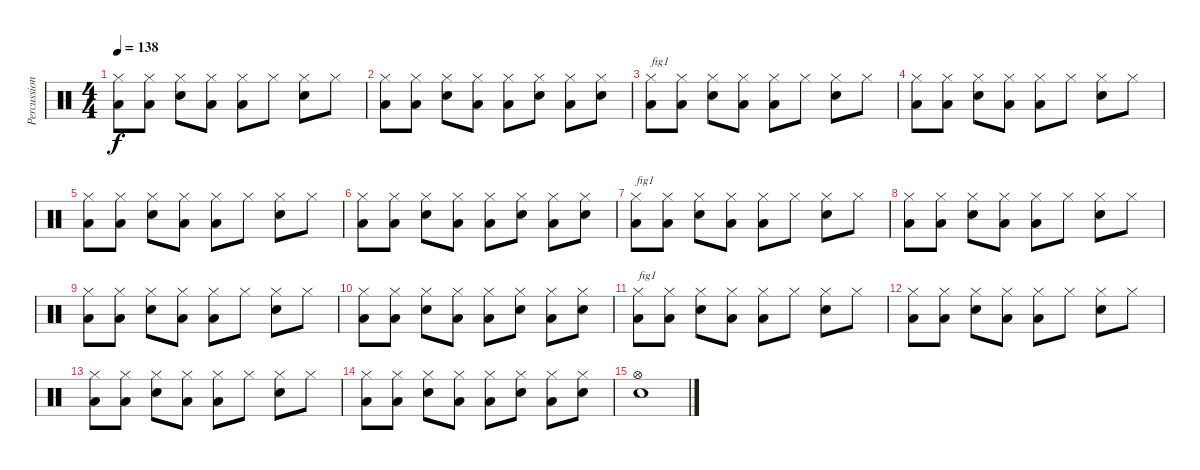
\track ("Percussions" "Percussion") {instrument percussion}
\staff {score}
\articulation defaults
\ts (4 4)
\tempo 138
\clef neutral
\ks c
("Low Floor Tom (hit)" "Hi-Hat (closed)").8{dy f} ("Low Floor Tom (hit)" "Hi-Hat (closed)").8 ("Snare (hit) 2" "Hi-Hat (closed)").8 ("Low Floor Tom (hit)" "Hi-Hat (closed)").8 ("Low Floor Tom (hit)" "Hi-Hat (closed)").8 "Hi-Hat (closed)".8 ("Snare (hit) 2" "Hi-Hat (closed)").8 "Hi-Hat (closed)".8 |
("Low Floor Tom (hit)" "Hi-Hat (closed)").8 ("Low Floor Tom (hit)" "Hi-Hat (closed)").8 ("Snare (hit) 2" "Hi-Hat (closed)").8 ("Low Floor Tom (hit)" "Hi-Hat (closed)").8 ("Low Floor Tom (hit)" "Hi-Hat (closed)").8 ("Snare (hit) 2" "Hi-Hat (closed)").8 ("Low Floor Tom (hit)" "Hi-Hat (closed)").8 ("Snare (hit) 2" "Hi-Hat (closed)").8 |
("Low Floor Tom (hit)" "Hi-Hat (closed)").8{txt "fig1"} ("Low Floor Tom (hit)" "Hi-Hat (closed)").8 ("Snare (hit) 2" "Hi-Hat (closed)").8 ("Low Floor Tom (hit)" "Hi-Hat (closed)").8 ("Low Floor Tom (hit)" "Hi-Hat (closed)").8 "Hi-Hat (closed)".8 ("Snare (hit) 2" "Hi-Hat (closed)").8 "Hi-Hat (closed)".8 |
("Low Floor Tom (hit)" "Hi-Hat (closed)").8 ("Low Floor Tom (hit)" "Hi-Hat (closed)").8 ("Snare (hit) 2" "Hi-Hat (closed)").8 ("Low Floor Tom (hit)" "Hi-Hat (closed)").8 ("Low Floor Tom (hit)" "Hi-Hat (closed)").8 "Hi-Hat (closed)".8 ("Snare (hit) 2" "Hi-Hat (closed)").8 "Hi-Hat (closed)".8 |
("Low Floor Tom (hit)" "Hi-Hat (closed)").8 ("Low Floor Tom (hit)" "Hi-Hat (closed)").8 ("Snare (hit) 2" "Hi-Hat (closed)").8 ("Low Floor Tom (hit)" "Hi-Hat (closed)").8 ("Low Floor Tom (hit)" "Hi-Hat (closed)").8 "Hi-Hat (closed)".8 ("Snare (hit) 2" "Hi-Hat (closed)").8 "Hi-Hat (closed)".8 |
("Low Floor Tom (hit)" "Hi-Hat (closed)").8 ("Low Floor Tom (hit)" "Hi-Hat (closed)").8 ("Snare (hit) 2" "Hi-Hat (closed)").8 ("Low Floor Tom (hit)" "Hi-Hat (closed)").8 ("Low Floor Tom (hit)" "Hi-Hat (closed)").8 ("Snare (hit) 2" "Hi-Hat (closed)").8 ("Low Floor Tom (hit)" "Hi-Hat (closed)").8 ("Snare (hit) 2" "Hi-Hat (closed)").8 |
("Low Floor Tom (hit)" "Hi-Hat (closed)").8{txt "fig1"} ("Low Floor Tom (hit)" "Hi-Hat (closed)").8 ("Snare (hit) 2" "Hi-Hat (closed)").8 ("Low Floor Tom (hit)" "Hi-Hat (closed)").8 ("Low Floor Tom (hit)" "Hi-Hat (closed)").8 "Hi-Hat (closed)".8 ("Snare (hit) 2" "Hi-Hat (closed)").8 "Hi-Hat (closed)".8 |
("Low Floor Tom (hit)" "Hi-Hat (closed)").8 ("Low Floor Tom (hit)" "Hi-Hat (closed)").8 ("Snare (hit) 2" "Hi-Hat (closed)").8 ("Low Floor Tom (hit)" "Hi-Hat (closed)").8 ("Low Floor Tom (hit)" "Hi-Hat (closed)").8 "Hi-Hat (closed)".8 ("Snare (hit) 2" "Hi-Hat (closed)").8 "Hi-Hat (closed)".8 |
("Low Floor Tom (hit)" "Hi-Hat (closed)").8 ("Low Floor Tom (hit)" "Hi-Hat (closed)").8 ("Snare (hit) 2" "Hi-Hat (closed)").8 ("Low Floor Tom (hit)" "Hi-Hat (closed)").8 ("Low Floor Tom (hit)" "Hi-Hat (closed)").8 "Hi-Hat (closed)".8 ("Snare (hit) 2" "Hi-Hat (closed)").8 "Hi-Hat (closed)".8 |
("Low Floor Tom (hit)" "Hi-Hat (closed)").8 ("Low Floor Tom (hit)" "Hi-Hat (closed)").8 ("Snare (hit) 2" "Hi-Hat (closed)").8 ("Low Floor Tom (hit)" "Hi-Hat (closed)").8 ("Low Floor Tom (hit)" "Hi-Hat (closed)").8 ("Snare (hit) 2" "Hi-Hat (closed)").8 ("Low Floor Tom (hit)" "Hi-Hat (closed)").8 ("Snare (hit) 2" "Hi-Hat (closed)").8 |
("Low Floor Tom (hit)" "Hi-Hat (closed)").8{txt "fig1"} ("Low Floor Tom (hit)" "Hi-Hat (closed)").8 ("Snare (hit) 2" "Hi-Hat (closed)").8 ("Low Floor Tom (hit)" "Hi-Hat (closed)").8 ("Low Floor Tom (hit)" "Hi-Hat (closed)").8 "Hi-Hat (closed)".8 ("Snare (hit) 2" "Hi-Hat (closed)").8 "Hi-Hat (closed)".8 |
("Low Floor Tom (hit)" "Hi-Hat (closed)").8 ("Low Floor Tom (hit)" "Hi-Hat (closed)").8 ("Snare (hit) 2" "Hi-Hat (closed)").8 ("Low Floor Tom (hit)" "Hi-Hat (closed)").8 ("Low Floor Tom (hit)" "Hi-Hat (closed)").8 "Hi-Hat (closed)".8 ("Snare (hit) 2" "Hi-Hat (closed)").8 "Hi-Hat (closed)".8 |
("Low Floor Tom (hit)" "Hi-Hat (closed)").8 ("Low Floor Tom (hit)" "Hi-Hat (closed)").8 ("Snare (hit) 2" "Hi-Hat (closed)").8 ("Low Floor Tom (hit)" "Hi-Hat (closed)").8 ("Low Floor Tom (hit)" "Hi-Hat (closed)").8 "Hi-Hat (closed)".8 ("Snare (hit) 2" "Hi-Hat (closed)").8 "Hi-Hat (closed)".8 |
("Low Floor Tom (hit)" "Hi-Hat (closed)").8 ("Low Floor Tom (hit)" "Hi-Hat (closed)").8 ("Snare (hit) 2" "Hi-Hat (closed)").8 ("Low Floor Tom (hit)" "Hi-Hat (closed)").8 ("Low Floor Tom (hit)" "Hi-Hat (closed)").8 ("Snare (hit) 2" "Hi-Hat (closed)").8 ("Low Floor Tom (hit)" "Hi-Hat (closed)").8 ("Snare (hit) 2" "Hi-Hat (closed)").8 |
("Snare (hit) 2" "Hi-Hat (open)").1
